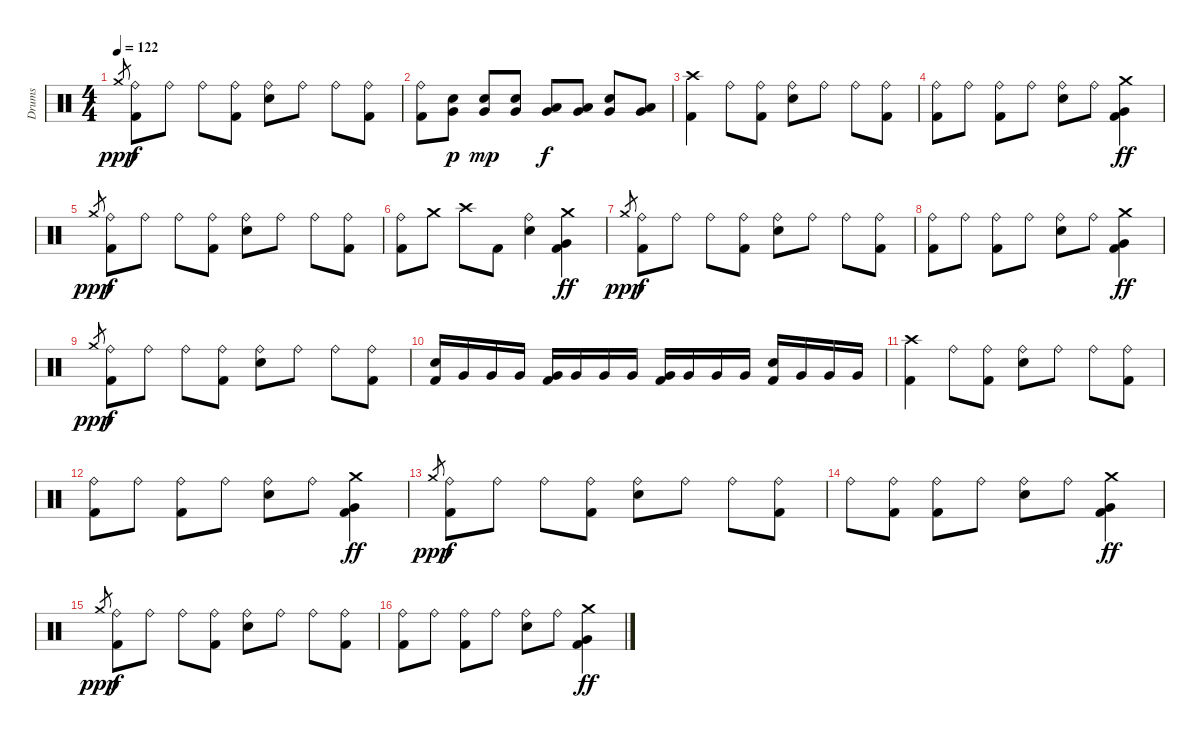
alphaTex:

\track ("Drums" "Drums") {instrument percussion}
\staff {score}
\articulation defaults
\ts (4 4)
\tempo 122
\clef neutral
\ks c "Crash medium (hit)".8{gr dy ppp}
("Ride (bell)" "Kick (hit) 2").8{dy f} "Ride (bell)".8 "Ride (bell)".8 ("Ride (bell)" "Kick (hit) 2").8 ("Ride (bell)" "Snare (hit) 2").8 "Ride (bell)".8 "Ride (bell)".8 ("Ride (bell)" "Kick (hit) 2").8 |
("Ride (bell)" "Kick (hit) 2").8 ("Snare (hit) 2" "Very Low Tom (hit)").8{dy p} ("Snare (hit) 2" "Very Low Tom (hit)").8{dy mp} ("Snare (hit) 2" "Very Low Tom (hit)").8 ("Low Tom (hit)" "Very Low Tom (hit)").8{dy f} ("Low Tom (hit)" "Very Low Tom (hit)").8 ("Snare (hit) 2" "Very Low Tom (hit)").8 ("Low Tom (hit)" "Very Low Tom (hit)").8 |
("Crash high (hit)" "Kick (hit) 2").4 "Ride (bell)".8 ("Ride (bell)" "Kick (hit) 2").8 ("Ride (bell)" "Snare (hit) 2").8 "Ride (bell)".8 "Ride (bell)".8 ("Ride (bell)" "Kick (hit) 2").8 |
("Ride (bell)" "Kick (hit) 2").8 "Ride (bell)".8 ("Ride (bell)" "Kick (hit) 2").8 "Ride (bell)".8 ("Ride (bell)" "Snare (hit) 2").8 "Ride (bell)".8 ("Crash medium (hit)" "Very Low Tom (hit)" "Kick (hit) 2").4{dy ff} |
"Crash medium (hit)".8{gr dy ppp} ("Ride (bell)" "Kick (hit) 2").8{dy f} "Ride (bell)".8 "Ride (bell)".8 ("Ride (bell)" "Kick (hit) 2").8 ("Ride (bell)" "Snare (hit) 2").8 "Ride (bell)".8 "Ride (bell)".8 ("Ride (bell)" "Kick (hit) 2").8 |
("Ride (bell)" "Kick (hit) 2").8 "Crash medium (hit)".8 "Crash high (hit)".8 "Kick (hit) 2".8 ("Ride (bell)" "Snare (hit) 2").4 ("Crash medium (hit)" "Very Low Tom (hit)" "Kick (hit) 2").4{dy ff} |
"Crash medium (hit)".8{gr dy ppp} ("Ride (bell)" "Kick (hit) 2").8{dy f} "Ride (bell)".8 "Ride (bell)".8 ("Ride (bell)" "Kick (hit) 2").8 ("Ride (bell)" "Snare (hit) 2").8 "Ride (bell)".8 "Ride (bell)".8 ("Ride (bell)" "Kick (hit) 2").8 |
("Ride (bell)" "Kick (hit) 2").8 "Ride (bell)".8 ("Ride (bell)" "Kick (hit) 2").8 "Ride (bell)".8 ("Ride (bell)" "Snare (hit) 2").8 "Ride (bell)".8 ("Crash medium (hit)" "Very Low Tom (hit)" "Kick (hit) 2").4{dy ff} |
"Crash medium (hit)".8{gr dy ppp} ("Ride (bell)" "Kick (hit) 2").8{dy f} "Ride (bell)".8 "Ride (bell)".8 ("Ride (bell)" "Kick (hit) 2").8 ("Ride (bell)" "Snare (hit) 2").8 "Ride (bell)".8 "Ride (bell)".8 ("Ride (bell)" "Kick (hit) 2").8 |
("Snare (hit) 2" "Kick (hit) 2").16 "Very Low Tom (hit)".16 "Very Low Tom (hit)".16 "Very Low Tom (hit)".16 ("Very Low Tom (hit)" "Kick (hit) 2").16 "Very Low Tom (hit)".16 "Very Low Tom (hit)".16 "Very Low Tom (hit)".16 ("Very Low Tom (hit)" "Kick (hit) 2").16 "Very Low Tom (hit)".16 "Very Low Tom (hit)".16 "Very Low Tom (hit)".16 ("Snare (hit) 2" "Kick (hit) 2").16 "Very Low Tom (hit)".16 "Very Low Tom (hit)".16 "Very Low Tom (hit)".16 |
("Crash high (hit)" "Kick (hit) 2").4 "Ride (bell)".8 ("Ride (bell)" "Kick (hit) 2").8 ("Ride (bell)" "Snare (hit) 2").8 "Ride (bell)".8 "Ride (bell)".8 ("Ride (bell)" "Kick (hit) 2").8 |
("Ride (bell)" "Kick (hit) 2").8 "Ride (bell)".8 ("Ride (bell)" "Kick (hit) 2").8 "Ride (bell)".8 ("Ride (bell)" "Snare (hit) 2").8 "Ride (bell)".8 ("Crash medium (hit)" "Very Low Tom (hit)" "Kick (hit) 2").4{dy ff} |
"Crash medium (hit)".8{gr dy ppp} ("Ride (bell)" "Kick (hit) 2").8{dy f} "Ride (bell)".8 "Ride (bell)".8 ("Ride (bell)" "Kick (hit) 2").8 ("Ride (bell)" "Snare (hit) 2").8 "Ride (bell)".8 "Ride (bell)".8 ("Ride (bell)" "Kick (hit) 2").8 |
"Ride (bell)".8 ("Ride (bell)" "Kick (hit) 2").8 ("Ride (bell)" "Kick (hit) 2").8 "Ride (bell)".8 ("Ride (bell)" "Snare (hit) 2").8 "Ride (bell)".8 ("Crash medium (hit)" "Very Low Tom (hit)" "Kick (hit) 2").4{dy ff} |
"Crash medium (hit)".8{gr dy ppp} ("Ride (bell)" "Kick (hit) 2").8{dy f} "Ride (bell)".8 "Ride (bell)".8 ("Ride (bell)" "Kick (hit) 2").8 ("Ride (bell)" "Snare (hit) 2").8 "Ride (bell)".8 "Ride (bell)".8 ("Ride (bell)" "Kick (hit) 2").8 |
("Ride (bell)" "Kick (hit) 2").8 "Ride (bell)".8 ("Ride (bell)" "Kick (hit) 2").8 "Ride (bell)".8 ("Ride (bell)" "Snare (hit) 2").8 "Ride (bell)".8 ("Crash medium (hit)" "Very Low Tom (hit)" "Kick (hit) 2").4{dy ff}
